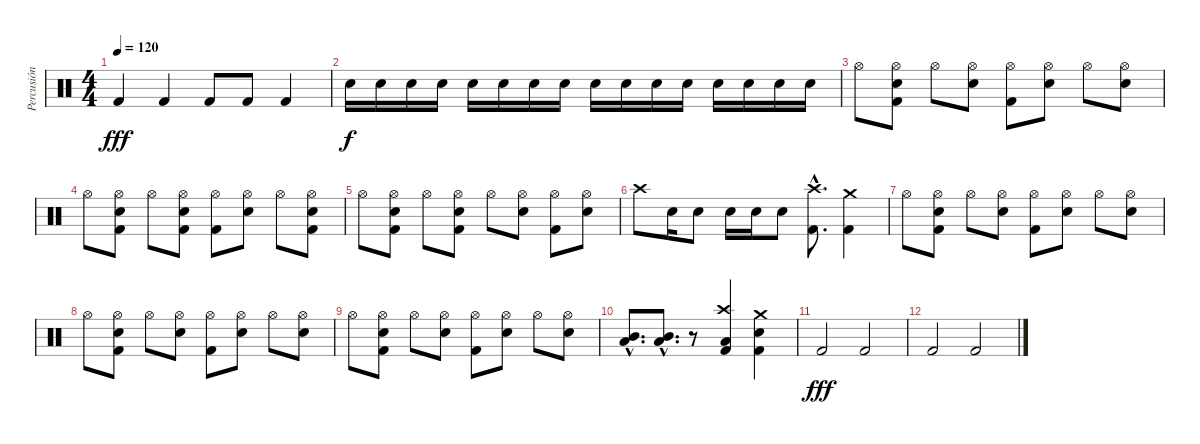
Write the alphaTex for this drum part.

\track ("Percusión" "Percusión") {instrument percussion}
\staff {score}
\articulation defaults
\ts (4 4)
\tempo 120
\clef neutral
\ks c "Kick (hit) 2".4{dy fff} "Kick (hit) 2".4 "Kick (hit) 2".8 "Kick (hit) 2".8 "Kick (hit) 2".4
|
"Snare (hit) 2".16{dy f} "Snare (hit) 2".16 "Snare (hit) 2".16 "Snare (hit) 2".16 "Snare (hit) 2".16 "Snare (hit) 2".16 "Snare (hit) 2".16 "Snare (hit) 2".16 "Snare (hit) 2".16 "Snare (hit) 2".16 "Snare (hit) 2".16 "Snare (hit) 2".16 "Snare (hit) 2".16 "Snare (hit) 2".16 "Snare (hit) 2".16 "Snare (hit) 2".16 |
"Hi-Hat (open)".8 ("Hi-Hat (open)" "Snare (hit) 2" "Kick (hit) 2").8 "Hi-Hat (open)".8 ("Hi-Hat (open)" "Snare (hit) 2").8 ("Hi-Hat (open)" "Kick (hit) 2").8 ("Hi-Hat (open)" "Snare (hit) 2").8 "Hi-Hat (open)".8 ("Hi-Hat (open)" "Snare (hit) 2").8 |
"Hi-Hat (open)".8 ("Hi-Hat (open)" "Snare (hit) 2" "Kick (hit) 2").8 "Hi-Hat (open)".8 ("Hi-Hat (open)" "Snare (hit) 2" "Kick (hit) 2").8 ("Hi-Hat (open)" "Kick (hit) 2").8 ("Hi-Hat (open)" "Snare (hit) 2").8 "Hi-Hat (open)".8 ("Hi-Hat (open)" "Snare (hit) 2" "Kick (hit) 2").8 |
"Hi-Hat (open)".8 ("Hi-Hat (open)" "Snare (hit) 2" "Kick (hit) 2").8 "Hi-Hat (open)".8 ("Hi-Hat (open)" "Snare (hit) 2" "Kick (hit) 2").8 "Hi-Hat (open)".8 ("Hi-Hat (open)" "Snare (hit) 2").8 ("Hi-Hat (open)" "Kick (hit) 2").8 ("Hi-Hat (open)" "Snare (hit) 2").8 |
"Crash high (hit)".8 "Snare (hit) 2".16 "Snare (hit) 2".8 "Snare (hit) 2".16 "Snare (hit) 2".16 "Snare (hit) 2".8 ("Crash high (hit)"{hac} "Kick (hit) 2"{hac}).8{d} ("Crash medium (hit)" "Kick (hit) 2").4 |
"Hi-Hat (open)".8 ("Hi-Hat (open)" "Snare (hit) 2" "Kick (hit) 2").8 "Hi-Hat (open)".8 ("Hi-Hat (open)" "Snare (hit) 2").8 ("Hi-Hat (open)" "Kick (hit) 2").8 ("Hi-Hat (open)" "Snare (hit) 2").8 "Hi-Hat (open)".8 ("Hi-Hat (open)" "Snare (hit) 2").8 |
"Hi-Hat (open)".8 ("Hi-Hat (open)" "Snare (hit) 2" "Kick (hit) 2").8 "Hi-Hat (open)".8 ("Hi-Hat (open)" "Snare (hit) 2").8 ("Hi-Hat (open)" "Kick (hit) 2").8 ("Hi-Hat (open)" "Snare (hit) 2").8 "Hi-Hat (open)".8 ("Hi-Hat (open)" "Snare (hit) 2").8 |
"Hi-Hat (open)".8 ("Hi-Hat (open)" "Snare (hit) 2" "Kick (hit) 2").8 "Hi-Hat (open)".8 ("Hi-Hat (open)" "Snare (hit) 2").8 ("Hi-Hat (open)" "Kick (hit) 2").8 ("Hi-Hat (open)" "Snare (hit) 2").8 "Hi-Hat (open)".8 ("Hi-Hat (open)" "Snare (hit) 2").8 |
("Low Tom (hit)"{hac} "Mid Tom (hit)"{hac}).8{d} ("Low Tom (hit)"{hac} "Mid Tom (hit)"{hac}).8{d} r.8 ("Crash high (hit)" "Kick (hit) 2" "Low Tom (hit)").4 ("Crash medium (hit)" "Snare (hit) 2" "Kick (hit) 2").4 |
"Kick (hit) 2".2{dy fff} "Kick (hit) 2".2 |
"Kick (hit) 2".2 "Kick (hit) 2".2
